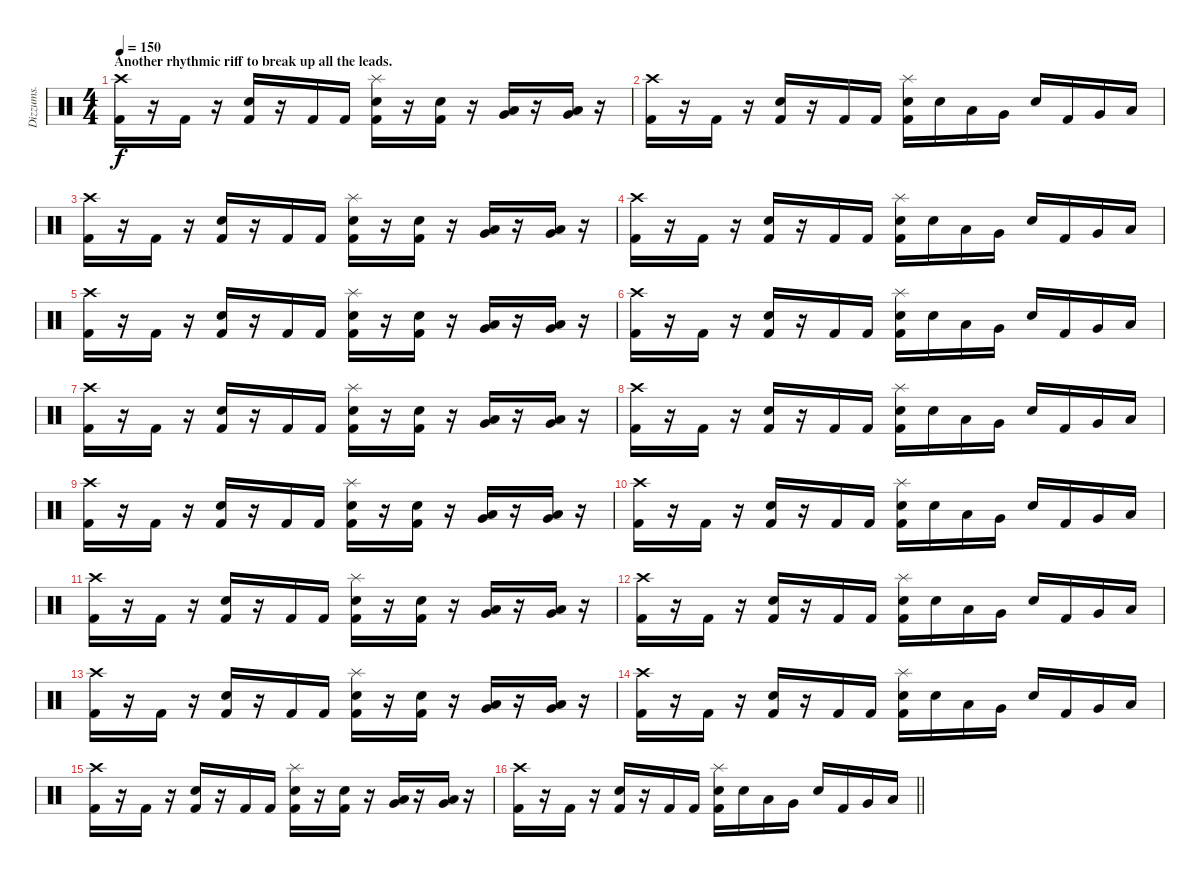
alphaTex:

\track ("Dizzums." "Dizzums.") {instrument percussion}
\staff {score}
\articulation defaults
\ts (4 4)
\section ("" "Another rhythmic riff to break up all the leads.")
\tempo 150
\clef neutral
\ks c
("Crash high (hit)" "Kick (hit) 2").16{dy f} r.16 "Kick (hit) 2".16 r.16 ("Electric Snare (hit)" "Kick (hit) 2").16 r.16 "Kick (hit) 2".16 "Kick (hit) 2".16 ("Splash (hit)" "Electric Snare (hit)" "Kick (hit) 2").16 r.16 ("Electric Snare (hit)" "Kick (hit) 2").16 r.16 ("Low Tom (hit)" "Very Low Tom (hit)").16 r.16 ("Very Low Tom (hit)" "Low Floor Tom (hit)").16 r.16 |
("Crash high (hit)" "Kick (hit) 2").16 r.16 "Kick (hit) 2".16 r.16 ("Electric Snare (hit)" "Kick (hit) 2").16 r.16 "Kick (hit) 2".16 "Kick (hit) 2".16 ("Splash (hit)" "Electric Snare (hit)" "Kick (hit) 2").16 "Electric Snare (hit)".16 "Low Tom (hit)".16 "Very Low Tom (hit)".16 "Electric Snare (hit)".16 "Kick (hit) 2".16 "Very Low Tom (hit)".16 "Low Floor Tom (hit)".16 |
("Crash high (hit)" "Kick (hit) 2").16 r.16 "Kick (hit) 2".16 r.16 ("Electric Snare (hit)" "Kick (hit) 2").16 r.16 "Kick (hit) 2".16 "Kick (hit) 2".16 ("Splash (hit)" "Electric Snare (hit)" "Kick (hit) 2").16 r.16 ("Electric Snare (hit)" "Kick (hit) 2").16 r.16 ("Low Tom (hit)" "Very Low Tom (hit)").16 r.16 ("Very Low Tom (hit)" "Low Floor Tom (hit)").16 r.16 |
("Crash high (hit)" "Kick (hit) 2").16 r.16 "Kick (hit) 2".16 r.16 ("Electric Snare (hit)" "Kick (hit) 2").16 r.16 "Kick (hit) 2".16 "Kick (hit) 2".16 ("Splash (hit)" "Electric Snare (hit)" "Kick (hit) 2").16 "Electric Snare (hit)".16 "Low Tom (hit)".16 "Very Low Tom (hit)".16 "Electric Snare (hit)".16 "Kick (hit) 2".16 "Very Low Tom (hit)".16 "Low Floor Tom (hit)".16 |
("Crash high (hit)" "Kick (hit) 2").16 r.16 "Kick (hit) 2".16 r.16 ("Electric Snare (hit)" "Kick (hit) 2").16 r.16 "Kick (hit) 2".16 "Kick (hit) 2".16 ("Splash (hit)" "Electric Snare (hit)" "Kick (hit) 2").16 r.16 ("Electric Snare (hit)" "Kick (hit) 2").16 r.16 ("Low Tom (hit)" "Very Low Tom (hit)").16 r.16 ("Very Low Tom (hit)" "Low Floor Tom (hit)").16 r.16 |
("Crash high (hit)" "Kick (hit) 2").16 r.16 "Kick (hit) 2".16 r.16 ("Electric Snare (hit)" "Kick (hit) 2").16 r.16 "Kick (hit) 2".16 "Kick (hit) 2".16 ("Splash (hit)" "Electric Snare (hit)" "Kick (hit) 2").16 "Electric Snare (hit)".16 "Low Tom (hit)".16 "Very Low Tom (hit)".16 "Electric Snare (hit)".16 "Kick (hit) 2".16 "Very Low Tom (hit)".16 "Low Floor Tom (hit)".16 |
("Crash high (hit)" "Kick (hit) 2").16 r.16 "Kick (hit) 2".16 r.16 ("Electric Snare (hit)" "Kick (hit) 2").16 r.16 "Kick (hit) 2".16 "Kick (hit) 2".16 ("Splash (hit)" "Electric Snare (hit)" "Kick (hit) 2").16 r.16 ("Electric Snare (hit)" "Kick (hit) 2").16 r.16 ("Low Tom (hit)" "Very Low Tom (hit)").16 r.16 ("Very Low Tom (hit)" "Low Floor Tom (hit)").16 r.16 |
("Crash high (hit)" "Kick (hit) 2").16 r.16 "Kick (hit) 2".16 r.16 ("Electric Snare (hit)" "Kick (hit) 2").16 r.16 "Kick (hit) 2".16 "Kick (hit) 2".16 ("Splash (hit)" "Electric Snare (hit)" "Kick (hit) 2").16 "Electric Snare (hit)".16 "Low Tom (hit)".16 "Very Low Tom (hit)".16 "Electric Snare (hit)".16 "Kick (hit) 2".16 "Very Low Tom (hit)".16 "Low Floor Tom (hit)".16 |
("Crash high (hit)" "Kick (hit) 2").16 r.16 "Kick (hit) 2".16 r.16 ("Electric Snare (hit)" "Kick (hit) 2").16 r.16 "Kick (hit) 2".16 "Kick (hit) 2".16 ("Splash (hit)" "Electric Snare (hit)" "Kick (hit) 2").16 r.16 ("Electric Snare (hit)" "Kick (hit) 2").16 r.16 ("Low Tom (hit)" "Very Low Tom (hit)").16 r.16 ("Very Low Tom (hit)" "Low Floor Tom (hit)").16 r.16 |
("Crash high (hit)" "Kick (hit) 2").16 r.16 "Kick (hit) 2".16 r.16 ("Electric Snare (hit)" "Kick (hit) 2").16 r.16 "Kick (hit) 2".16 "Kick (hit) 2".16 ("Splash (hit)" "Electric Snare (hit)" "Kick (hit) 2").16 "Electric Snare (hit)".16 "Low Tom (hit)".16 "Very Low Tom (hit)".16 "Electric Snare (hit)".16 "Kick (hit) 2".16 "Very Low Tom (hit)".16 "Low Floor Tom (hit)".16 |
("Crash high (hit)" "Kick (hit) 2").16 r.16 "Kick (hit) 2".16 r.16 ("Electric Snare (hit)" "Kick (hit) 2").16 r.16 "Kick (hit) 2".16 "Kick (hit) 2".16 ("Splash (hit)" "Electric Snare (hit)" "Kick (hit) 2").16 r.16 ("Electric Snare (hit)" "Kick (hit) 2").16 r.16 ("Low Tom (hit)" "Very Low Tom (hit)").16 r.16 ("Very Low Tom (hit)" "Low Floor Tom (hit)").16 r.16 |
("Crash high (hit)" "Kick (hit) 2").16 r.16 "Kick (hit) 2".16 r.16 ("Electric Snare (hit)" "Kick (hit) 2").16 r.16 "Kick (hit) 2".16 "Kick (hit) 2".16 ("Splash (hit)" "Electric Snare (hit)" "Kick (hit) 2").16 "Electric Snare (hit)".16 "Low Tom (hit)".16 "Very Low Tom (hit)".16 "Electric Snare (hit)".16 "Kick (hit) 2".16 "Very Low Tom (hit)".16 "Low Floor Tom (hit)".16 |
("Crash high (hit)" "Kick (hit) 2").16 r.16 "Kick (hit) 2".16 r.16 ("Electric Snare (hit)" "Kick (hit) 2").16 r.16 "Kick (hit) 2".16 "Kick (hit) 2".16 ("Splash (hit)" "Electric Snare (hit)" "Kick (hit) 2").16 r.16 ("Electric Snare (hit)" "Kick (hit) 2").16 r.16 ("Low Tom (hit)" "Very Low Tom (hit)").16 r.16 ("Very Low Tom (hit)" "Low Floor Tom (hit)").16 r.16 |
("Crash high (hit)" "Kick (hit) 2").16 r.16 "Kick (hit) 2".16 r.16 ("Electric Snare (hit)" "Kick (hit) 2").16 r.16 "Kick (hit) 2".16 "Kick (hit) 2".16 ("Splash (hit)" "Electric Snare (hit)" "Kick (hit) 2").16 "Electric Snare (hit)".16 "Low Tom (hit)".16 "Very Low Tom (hit)".16 "Electric Snare (hit)".16 "Kick (hit) 2".16 "Very Low Tom (hit)".16 "Low Floor Tom (hit)".16 |
("Crash high (hit)" "Kick (hit) 2").16 r.16 "Kick (hit) 2".16 r.16 ("Electric Snare (hit)" "Kick (hit) 2").16 r.16 "Kick (hit) 2".16 "Kick (hit) 2".16 ("Splash (hit)" "Electric Snare (hit)" "Kick (hit) 2").16 r.16 ("Electric Snare (hit)" "Kick (hit) 2").16 r.16 ("Low Tom (hit)" "Very Low Tom (hit)").16 r.16 ("Very Low Tom (hit)" "Low Floor Tom (hit)").16 r.16 |
\barLineRight lightlight
("Crash high (hit)" "Kick (hit) 2").16 r.16 "Kick (hit) 2".16 r.16 ("Electric Snare (hit)" "Kick (hit) 2").16 r.16 "Kick (hit) 2".16 "Kick (hit) 2".16 ("Splash (hit)" "Electric Snare (hit)" "Kick (hit) 2").16 "Electric Snare (hit)".16 "Low Tom (hit)".16 "Very Low Tom (hit)".16 "Electric Snare (hit)".16 "Kick (hit) 2".16 "Very Low Tom (hit)".16 "Low Floor Tom (hit)".16
